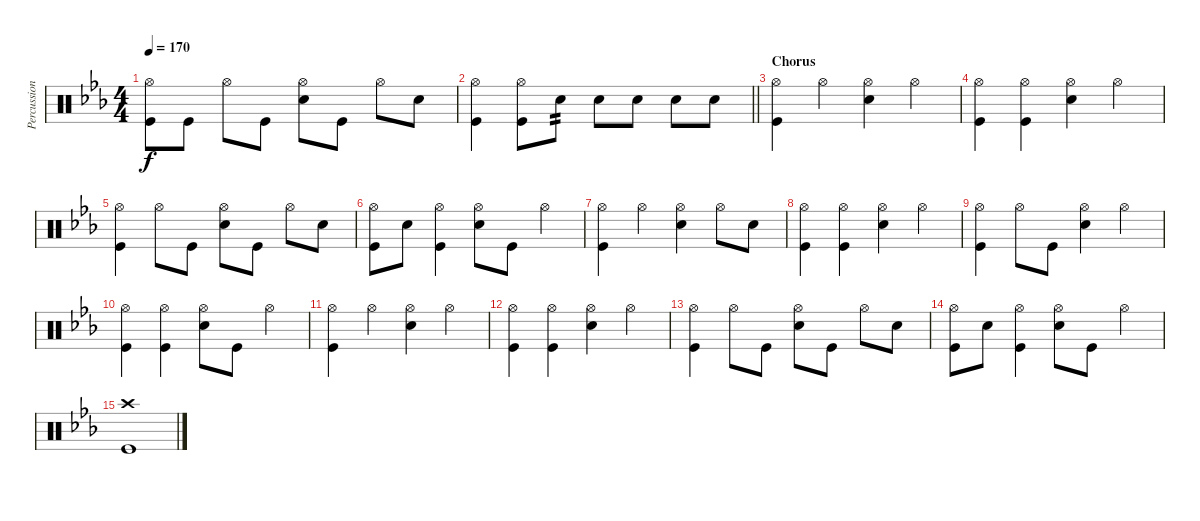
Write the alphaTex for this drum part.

\track ("Percussion" "Percussion") {instrument percussion}
\staff {score}
\articulation defaults
\ts (4 4)
\tempo 170
\clef neutral
\ks eb
("Kick (hit)" "Hi-Hat (open)").8{dy f} "Kick (hit)".8 "Hi-Hat (open)".8 "Kick (hit)".8 ("Snare (hit) 2" "Hi-Hat (open)").8 "Kick (hit)".8 "Hi-Hat (open)".8 "Snare (hit) 2".8 |
\barLineRight lightlight
("Hi-Hat (open)" "Kick (hit)").4 ("Kick (hit)" "Hi-Hat (open)").8 "Snare (hit) 2".8{tp 2} "Snare (hit) 2".8 "Snare (hit) 2".8 "Snare (hit) 2".8 "Snare (hit) 2".8 |
\section ("" "Chorus")
("Kick (hit)" "Hi-Hat (open)").4 "Hi-Hat (open)".4 ("Hi-Hat (open)" "Snare (hit) 2").4 "Hi-Hat (open)".4 |
("Hi-Hat (open)" "Kick (hit)").4 ("Kick (hit)" "Hi-Hat (open)").4 ("Hi-Hat (open)" "Snare (hit) 2").4 "Hi-Hat (open)".4 |
("Hi-Hat (open)" "Kick (hit)").4 "Hi-Hat (open)".8 "Kick (hit)".8 ("Hi-Hat (open)" "Snare (hit) 2").8 "Kick (hit)".8 "Hi-Hat (open)".8 "Snare (hit) 2".8 |
("Hi-Hat (open)" "Kick (hit)").8 "Snare (hit) 2".8 ("Kick (hit)" "Hi-Hat (open)").4 ("Hi-Hat (open)" "Snare (hit) 2").8 "Kick (hit)".8 "Hi-Hat (open)".4 |
("Kick (hit)" "Hi-Hat (open)").4 "Hi-Hat (open)".4 ("Hi-Hat (open)" "Snare (hit) 2").4 "Hi-Hat (open)".8 "Snare (hit) 2".8 |
("Hi-Hat (open)" "Kick (hit)").4 ("Kick (hit)" "Hi-Hat (open)").4 ("Hi-Hat (open)" "Snare (hit) 2").4 "Hi-Hat (open)".4 |
("Kick (hit)" "Hi-Hat (open)").4 "Hi-Hat (open)".8 "Kick (hit)".8 ("Hi-Hat (open)" "Snare (hit) 2").4 "Hi-Hat (open)".4 |
("Hi-Hat (open)" "Kick (hit)").4 ("Kick (hit)" "Hi-Hat (open)").4 ("Hi-Hat (open)" "Snare (hit) 2").8 "Kick (hit)".8 "Hi-Hat (open)".4 |
("Kick (hit)" "Hi-Hat (open)").4 "Hi-Hat (open)".4 ("Hi-Hat (open)" "Snare (hit) 2").4 "Hi-Hat (open)".4 |
("Hi-Hat (open)" "Kick (hit)").4 ("Kick (hit)" "Hi-Hat (open)").4 ("Hi-Hat (open)" "Snare (hit) 2").4 "Hi-Hat (open)".4 |
("Hi-Hat (open)" "Kick (hit)").4 "Hi-Hat (open)".8 "Kick (hit)".8 ("Hi-Hat (open)" "Snare (hit) 2").8 "Kick (hit)".8 "Hi-Hat (open)".8 "Snare (hit) 2".8 |
("Hi-Hat (open)" "Kick (hit)").8 "Snare (hit) 2".8 ("Kick (hit)" "Hi-Hat (open)").4 ("Hi-Hat (open)" "Snare (hit) 2").8 "Kick (hit)".8 "Hi-Hat (open)".4 |
("Crash high (hit)" "Kick (hit)").1
